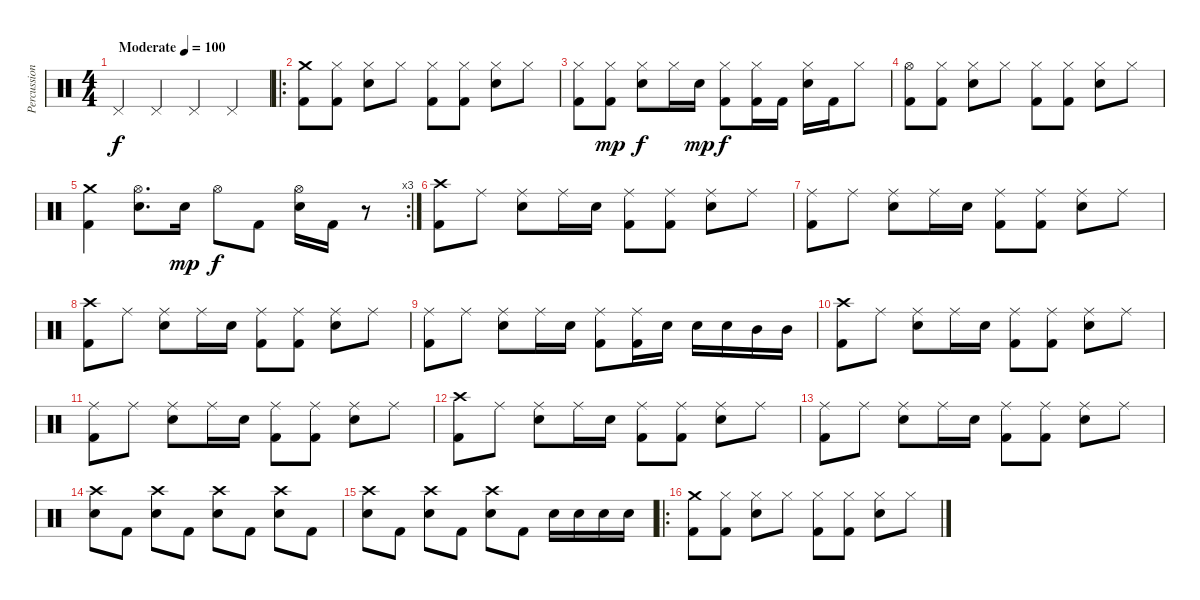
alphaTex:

\track ("Percussion" "Percussion") {instrument percussion}
\staff {score}
\articulation defaults
\ts (4 4)
\tempo (100 "Moderate")
\clef neutral
\ks c "Pedal Hi-Hat (hit)".4{dy f} "Pedal Hi-Hat (hit)".4 "Pedal Hi-Hat (hit)".4 "Pedal Hi-Hat (hit)".4
|
\ro
("Kick (hit) 2" "Crash medium (hit)").8 ("Kick (hit) 2" "Hi-Hat (closed)").8 ("Electric Snare (hit)" "Hi-Hat (closed)").8 "Hi-Hat (closed)".8 ("Hi-Hat (closed)" "Kick (hit) 2").8 ("Hi-Hat (closed)" "Kick (hit) 2").8 ("Hi-Hat (closed)" "Electric Snare (hit)").8 "Hi-Hat (closed)".8 |
("Kick (hit) 2" "Hi-Hat (closed)").8 ("Kick (hit) 2" "Hi-Hat (closed)").8{dy mp} ("Electric Snare (hit)" "Hi-Hat (closed)").8{dy f} "Hi-Hat (closed)".16 "Electric Snare (hit)".16{dy mp} ("Hi-Hat (closed)" "Kick (hit) 2").8{dy f} ("Hi-Hat (closed)" "Kick (hit) 2").16 "Kick (hit) 2".16 ("Electric Snare (hit)" "Hi-Hat (closed)").16 "Kick (hit) 2".16 "Hi-Hat (closed)".8 |
("Kick (hit) 2" "Hi-Hat (open)").8 ("Kick (hit) 2" "Hi-Hat (closed)").8 ("Electric Snare (hit)" "Hi-Hat (closed)").8 "Hi-Hat (closed)".8 ("Hi-Hat (closed)" "Kick (hit) 2").8 ("Hi-Hat (closed)" "Kick (hit) 2").8 ("Hi-Hat (closed)" "Electric Snare (hit)").8 "Hi-Hat (closed)".8 |
\rc 3
("Kick (hit) 2" "Crash medium (hit)").4 ("Electric Snare (hit)" "Hi-Hat (open)").8{d} "Electric Snare (hit)".16{dy mp} "Hi-Hat (open)".8{dy f} "Kick (hit) 2".8 ("Electric Snare (hit)" "Hi-Hat (open)").16 "Kick (hit) 2".16 r.8 |
("Kick (hit) 2" "Crash high (hit)").8 "Ride (middle)".8 ("Electric Snare (hit)" "Ride (middle)").8 "Ride (middle)".16 "Electric Snare (hit)".16 ("Ride (middle)" "Kick (hit) 2").8 ("Ride (middle)" "Kick (hit) 2").8 ("Electric Snare (hit)" "Ride (middle)").8 "Ride (middle)".8 |
("Kick (hit) 2" "Ride (middle)").8 "Ride (middle)".8 ("Electric Snare (hit)" "Ride (middle)").8 "Ride (middle)".16 "Electric Snare (hit)".16 ("Ride (middle)" "Kick (hit) 2").8 ("Ride (middle)" "Kick (hit) 2").8 ("Electric Snare (hit)" "Ride (middle)").8 "Ride (middle)".8 |
("Kick (hit) 2" "Crash high (hit)").8 "Ride (middle)".8 ("Electric Snare (hit)" "Ride (middle)").8 "Ride (middle)".16 "Electric Snare (hit)".16 ("Ride (middle)" "Kick (hit) 2").8 ("Ride (middle)" "Kick (hit) 2").8 ("Electric Snare (hit)" "Ride (middle)").8 "Ride (middle)".8 |
("Kick (hit) 2" "Ride (middle)").8 "Ride (middle)".8 ("Electric Snare (hit)" "Ride (middle)").8 "Ride (middle)".16 "Electric Snare (hit)".16 ("Ride (middle)" "Kick (hit) 2").8 ("Ride (middle)" "Kick (hit) 2").16 "Electric Snare (hit)".16 "Electric Snare (hit)".16 "Electric Snare (hit)".16 "Mid Tom (hit)".16 "Mid Tom (hit)".16 |
("Kick (hit) 2" "Crash high (hit)").8 "Ride (middle)".8 ("Electric Snare (hit)" "Ride (middle)").8 "Ride (middle)".16 "Electric Snare (hit)".16 ("Ride (middle)" "Kick (hit) 2").8 ("Ride (middle)" "Kick (hit) 2").8 ("Electric Snare (hit)" "Ride (middle)").8 "Ride (middle)".8 |
("Kick (hit) 2" "Ride (middle)").8 "Ride (middle)".8 ("Electric Snare (hit)" "Ride (middle)").8 "Ride (middle)".16 "Electric Snare (hit)".16 ("Ride (middle)" "Kick (hit) 2").8 ("Ride (middle)" "Kick (hit) 2").8 ("Electric Snare (hit)" "Ride (middle)").8 "Ride (middle)".8 |
("Kick (hit) 2" "Crash high (hit)").8 "Ride (middle)".8 ("Electric Snare (hit)" "Ride (middle)").8 "Ride (middle)".16 "Electric Snare (hit)".16 ("Ride (middle)" "Kick (hit) 2").8 ("Ride (middle)" "Kick (hit) 2").8 ("Electric Snare (hit)" "Ride (middle)").8 "Ride (middle)".8 |
("Kick (hit) 2" "Ride (middle)").8 "Ride (middle)".8 ("Electric Snare (hit)" "Ride (middle)").8 "Ride (middle)".16 "Electric Snare (hit)".16 ("Ride (middle)" "Kick (hit) 2").8 ("Ride (middle)" "Kick (hit) 2").8 ("Ride (middle)" "Electric Snare (hit)").8 "Ride (middle)".8 |
("Electric Snare (hit)" "Crash high (hit)").8 "Kick (hit) 2".8 ("Electric Snare (hit)" "Crash high (hit)").8 "Kick (hit) 2".8 ("Electric Snare (hit)" "Crash high (hit)").8 "Kick (hit) 2".8 ("Electric Snare (hit)" "Crash high (hit)").8 "Kick (hit) 2".8 |
("Electric Snare (hit)" "Crash high (hit)").8 "Kick (hit) 2".8 ("Electric Snare (hit)" "Crash high (hit)").8 "Kick (hit) 2".8 ("Electric Snare (hit)" "Crash high (hit)").8 "Kick (hit) 2".8 "Electric Snare (hit)".16 "Electric Snare (hit)".16 "Electric Snare (hit)".16 "Electric Snare (hit)".16 |
\ro
("Kick (hit) 2" "Crash medium (hit)").8 ("Kick (hit) 2" "Hi-Hat (closed)").8 ("Electric Snare (hit)" "Hi-Hat (closed)").8 "Hi-Hat (closed)".8 ("Hi-Hat (closed)" "Kick (hit) 2").8 ("Hi-Hat (closed)" "Kick (hit) 2").8 ("Hi-Hat (closed)" "Electric Snare (hit)").8 "Hi-Hat (closed)".8
